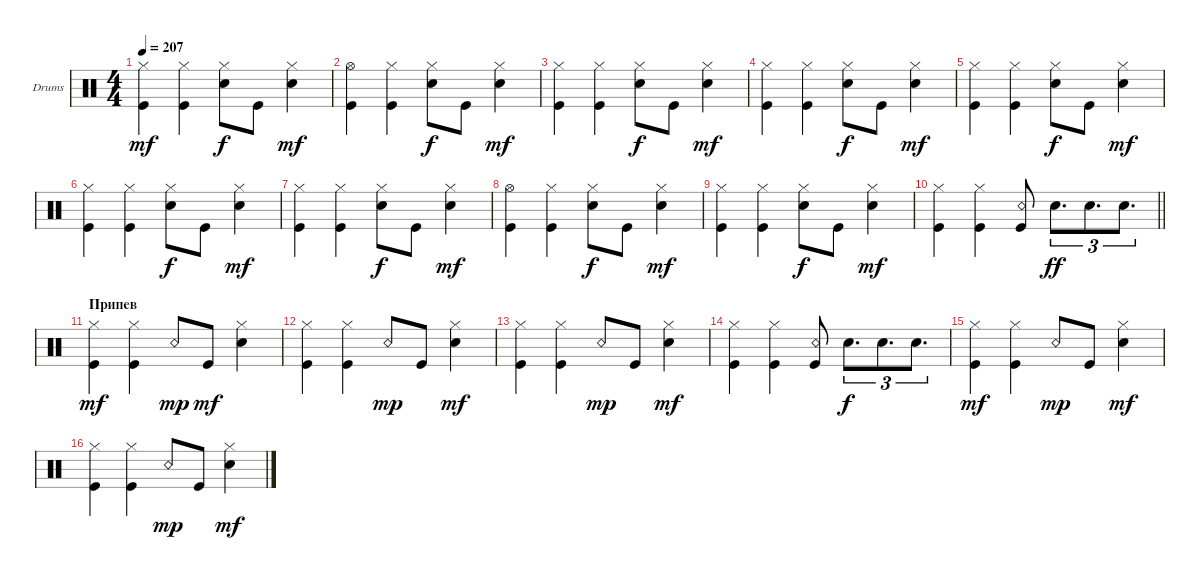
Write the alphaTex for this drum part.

\defaultSystemsLayout 4
\bracketExtendMode groupsimilarinstruments
\firstSystemTrackNameOrientation horizontal
\otherSystemsTrackNameOrientation horizontal
\track ("Drumkit" "Drums") {instrument percussion}
\staff {score}
\articulation defaults
\ts (4 4)
\tempo 207
\clef neutral
\scale
0.333333
\ks c
("Kick (hit)" "Hi-Hat (closed)").4{dy mf} ("Hi-Hat (closed)" "Kick (hit)").4 ("Snare (hit) 2" "Hi-Hat (closed)").8{dy f} "Kick (hit)".8 ("Hi-Hat (closed)" "Snare (hit) 2").4{dy mf} |
\scale
0.333333 ("Kick (hit)" "Hi-Hat (open)").4 ("Hi-Hat (closed)" "Kick (hit)").4 ("Snare (hit) 2" "Hi-Hat (closed)").8{dy f} "Kick (hit)".8 ("Hi-Hat (closed)" "Snare (hit) 2").4{dy mf} |
\scale
0.333333 ("Kick (hit)" "Hi-Hat (closed)").4 ("Hi-Hat (closed)" "Kick (hit)").4 ("Snare (hit) 2" "Hi-Hat (closed)").8{dy f} "Kick (hit)".8 ("Hi-Hat (closed)" "Snare (hit) 2").4{dy mf} |
\scale
0.333333 ("Kick (hit)" "Hi-Hat (closed)").4 ("Hi-Hat (closed)" "Kick (hit)").4 ("Snare (hit) 2" "Hi-Hat (closed)").8{dy f} "Kick (hit)".8 ("Hi-Hat (closed)" "Snare (hit) 2").4{dy mf} |
\scale
0.333333 ("Kick (hit)" "Hi-Hat (closed)").4 ("Hi-Hat (closed)" "Kick (hit)").4 ("Snare (hit) 2" "Hi-Hat (closed)").8{dy f} "Kick (hit)".8 ("Hi-Hat (closed)" "Snare (hit) 2").4{dy mf} |
\scale
0.333333 ("Kick (hit)" "Hi-Hat (closed)").4 ("Hi-Hat (closed)" "Kick (hit)").4 ("Snare (hit) 2" "Hi-Hat (closed)").8{dy f} "Kick (hit)".8 ("Hi-Hat (closed)" "Snare (hit) 2").4{dy mf} |
\scale
0.333333 ("Kick (hit)" "Hi-Hat (closed)").4 ("Hi-Hat (closed)" "Kick (hit)").4 ("Snare (hit) 2" "Hi-Hat (closed)").8{dy f} "Kick (hit)".8 ("Hi-Hat (closed)" "Snare (hit) 2").4{dy mf} |
\scale
0.333333 ("Kick (hit)" "Hi-Hat (open)").4 ("Hi-Hat (closed)" "Kick (hit)").4 ("Snare (hit) 2" "Hi-Hat (closed)").8{dy f} "Kick (hit)".8 ("Hi-Hat (closed)" "Snare (hit) 2").4{dy mf} |
\scale
0.333333 ("Kick (hit)" "Hi-Hat (closed)").4 ("Hi-Hat (closed)" "Kick (hit)").4 ("Snare (hit) 2" "Hi-Hat (closed)").8{dy f} "Kick (hit)".8 ("Hi-Hat (closed)" "Snare (hit) 2").4{dy mf} |
\scale
0.333333
\barLineRight lightlight
("Kick (hit)" "Hi-Hat (closed)").4 ("Hi-Hat (closed)" "Kick (hit)").4 ("Kick (hit)" "Snare (rim shot)").8 "Snare (hit) 2".8{d tu (3 2) dy ff} "Snare (hit) 2".8{d tu (3 2)} "Snare (hit) 2".8{d tu (3 2)} |
\section ("" "Припев")
\scale
0.333333 ("Kick (hit)" "Hi-Hat (closed)").4{dy mf} ("Hi-Hat (closed)" "Kick (hit)").4 "Snare (rim shot)".8{dy mp} "Kick (hit)".8{dy mf} ("Hi-Hat (closed)" "Snare (hit) 2").4 |
\scale
0.333333 ("Kick (hit)" "Hi-Hat (closed)").4 ("Hi-Hat (closed)" "Kick (hit)").4 "Snare (rim shot)".8{dy mp} "Kick (hit)".8 ("Hi-Hat (closed)" "Snare (hit) 2").4{dy mf} |
\scale
0.333333 ("Kick (hit)" "Hi-Hat (closed)").4 ("Hi-Hat (closed)" "Kick (hit)").4 "Snare (rim shot)".8{dy mp} "Kick (hit)".8 ("Hi-Hat (closed)" "Snare (hit) 2").4{dy mf} |
\scale
0.333333 ("Kick (hit)" "Hi-Hat (closed)").4 ("Hi-Hat (closed)" "Kick (hit)").4 ("Kick (hit)" "Snare (rim shot)").8 "Snare (hit) 2".8{d tu (3 2) dy f} "Snare (hit) 2".8{d tu (3 2)} "Snare (hit) 2".8{d tu (3 2)} |
\scale
0.333333 ("Kick (hit)" "Hi-Hat (closed)").4{dy mf} ("Hi-Hat (closed)" "Kick (hit)").4 "Snare (rim shot)".8{dy mp} "Kick (hit)".8 ("Hi-Hat (closed)" "Snare (hit) 2").4{dy mf} |
\scale
0.333333 ("Kick (hit)" "Hi-Hat (closed)").4 ("Hi-Hat (closed)" "Kick (hit)").4 "Snare (rim shot)".8{dy mp} "Kick (hit)".8 ("Hi-Hat (closed)" "Snare (hit) 2").4{dy mf}
